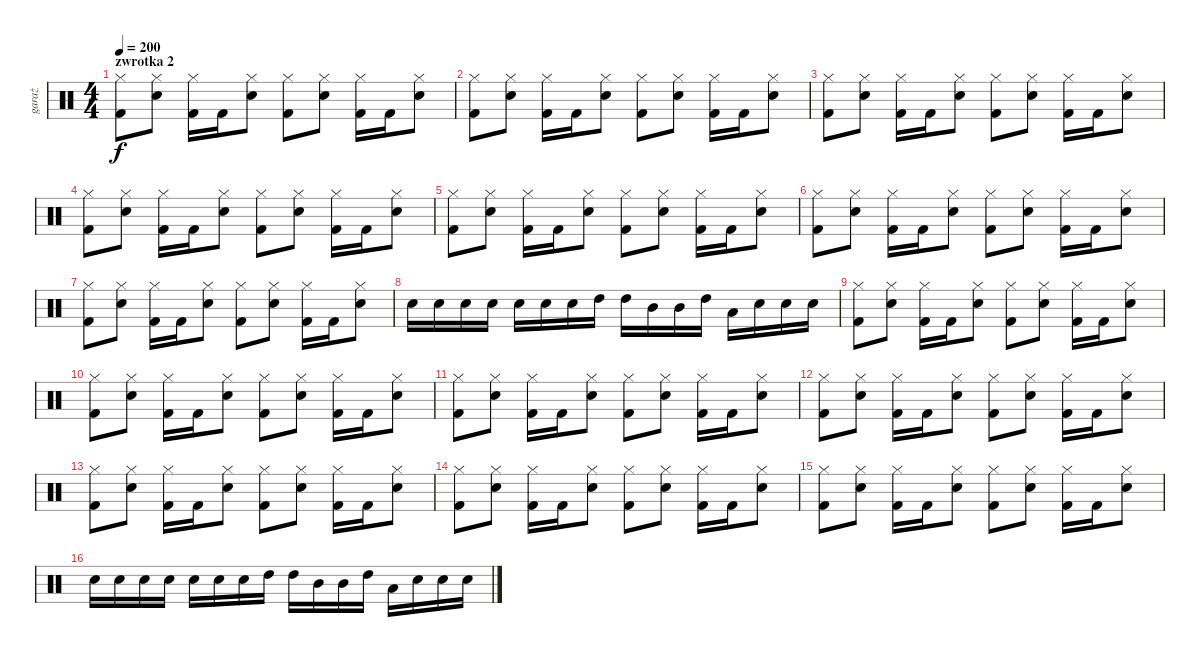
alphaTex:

\track ("garaż" "garaż") {instrument percussion}
\staff {score}
\articulation defaults
\ts (4 4)
\section ("" "zwrotka 2")
\tempo 200
\clef neutral
\ks c
("Hi-Hat (closed)" "Kick (hit) 2").8{dy f} ("Hi-Hat (closed)" "Snare (hit) 2").8 ("Hi-Hat (closed)" "Kick (hit) 2").16 "Kick (hit) 2".16 ("Hi-Hat (closed)" "Snare (hit) 2").8 ("Hi-Hat (closed)" "Kick (hit) 2").8 ("Hi-Hat (closed)" "Snare (hit) 2").8 ("Hi-Hat (closed)" "Kick (hit) 2").16 "Kick (hit) 2".16 ("Hi-Hat (closed)" "Snare (hit) 2").8 |
("Hi-Hat (closed)" "Kick (hit) 2").8 ("Hi-Hat (closed)" "Snare (hit) 2").8 ("Hi-Hat (closed)" "Kick (hit) 2").16 "Kick (hit) 2".16 ("Hi-Hat (closed)" "Snare (hit) 2").8 ("Hi-Hat (closed)" "Kick (hit) 2").8 ("Hi-Hat (closed)" "Snare (hit) 2").8 ("Hi-Hat (closed)" "Kick (hit) 2").16 "Kick (hit) 2".16 ("Hi-Hat (closed)" "Snare (hit) 2").8 |
("Hi-Hat (closed)" "Kick (hit) 2").8 ("Hi-Hat (closed)" "Snare (hit) 2").8 ("Hi-Hat (closed)" "Kick (hit) 2").16 "Kick (hit) 2".16 ("Hi-Hat (closed)" "Snare (hit) 2").8 ("Hi-Hat (closed)" "Kick (hit) 2").8 ("Hi-Hat (closed)" "Snare (hit) 2").8 ("Hi-Hat (closed)" "Kick (hit) 2").16 "Kick (hit) 2".16 ("Hi-Hat (closed)" "Snare (hit) 2").8 |
("Hi-Hat (closed)" "Kick (hit) 2").8 ("Hi-Hat (closed)" "Snare (hit) 2").8 ("Hi-Hat (closed)" "Kick (hit) 2").16 "Kick (hit) 2".16 ("Hi-Hat (closed)" "Snare (hit) 2").8 ("Hi-Hat (closed)" "Kick (hit) 2").8 ("Hi-Hat (closed)" "Snare (hit) 2").8 ("Hi-Hat (closed)" "Kick (hit) 2").16 "Kick (hit) 2".16 ("Hi-Hat (closed)" "Snare (hit) 2").8 |
("Hi-Hat (closed)" "Kick (hit) 2").8 ("Hi-Hat (closed)" "Snare (hit) 2").8 ("Hi-Hat (closed)" "Kick (hit) 2").16 "Kick (hit) 2".16 ("Hi-Hat (closed)" "Snare (hit) 2").8 ("Hi-Hat (closed)" "Kick (hit) 2").8 ("Hi-Hat (closed)" "Snare (hit) 2").8 ("Hi-Hat (closed)" "Kick (hit) 2").16 "Kick (hit) 2".16 ("Hi-Hat (closed)" "Snare (hit) 2").8 |
("Hi-Hat (closed)" "Kick (hit) 2").8 ("Hi-Hat (closed)" "Snare (hit) 2").8 ("Hi-Hat (closed)" "Kick (hit) 2").16 "Kick (hit) 2".16 ("Hi-Hat (closed)" "Snare (hit) 2").8 ("Hi-Hat (closed)" "Kick (hit) 2").8 ("Hi-Hat (closed)" "Snare (hit) 2").8 ("Hi-Hat (closed)" "Kick (hit) 2").16 "Kick (hit) 2".16 ("Hi-Hat (closed)" "Snare (hit) 2").8 |
("Hi-Hat (closed)" "Kick (hit) 2").8 ("Hi-Hat (closed)" "Snare (hit) 2").8 ("Hi-Hat (closed)" "Kick (hit) 2").16 "Kick (hit) 2".16 ("Hi-Hat (closed)" "Snare (hit) 2").8 ("Hi-Hat (closed)" "Kick (hit) 2").8 ("Hi-Hat (closed)" "Snare (hit) 2").8 ("Hi-Hat (closed)" "Kick (hit) 2").16 "Kick (hit) 2".16 ("Hi-Hat (closed)" "Snare (hit) 2").8 |
"Snare (hit) 2".16 "Snare (hit) 2".16 "Snare (hit) 2".16 "Snare (hit) 2".16 "Snare (hit) 2".16 "Snare (hit) 2".16 "Snare (hit) 2".16 "High Tom (hit)".16 "High Tom (hit)".16 "Mid Tom (hit)".16 "Mid Tom (hit)".16 "High Tom (hit)".16 "Low Tom (hit)".16 "Snare (hit) 2".16 "Snare (hit) 2".16 "Snare (hit) 2".16 |
("Hi-Hat (closed)" "Kick (hit) 2").8 ("Hi-Hat (closed)" "Snare (hit) 2").8 ("Hi-Hat (closed)" "Kick (hit) 2").16 "Kick (hit) 2".16 ("Hi-Hat (closed)" "Snare (hit) 2").8 ("Hi-Hat (closed)" "Kick (hit) 2").8 ("Hi-Hat (closed)" "Snare (hit) 2").8 ("Hi-Hat (closed)" "Kick (hit) 2").16 "Kick (hit) 2".16 ("Hi-Hat (closed)" "Snare (hit) 2").8 |
("Hi-Hat (closed)" "Kick (hit) 2").8 ("Hi-Hat (closed)" "Snare (hit) 2").8 ("Hi-Hat (closed)" "Kick (hit) 2").16 "Kick (hit) 2".16 ("Hi-Hat (closed)" "Snare (hit) 2").8 ("Hi-Hat (closed)" "Kick (hit) 2").8 ("Hi-Hat (closed)" "Snare (hit) 2").8 ("Hi-Hat (closed)" "Kick (hit) 2").16 "Kick (hit) 2".16 ("Hi-Hat (closed)" "Snare (hit) 2").8 |
("Hi-Hat (closed)" "Kick (hit) 2").8 ("Hi-Hat (closed)" "Snare (hit) 2").8 ("Hi-Hat (closed)" "Kick (hit) 2").16 "Kick (hit) 2".16 ("Hi-Hat (closed)" "Snare (hit) 2").8 ("Hi-Hat (closed)" "Kick (hit) 2").8 ("Hi-Hat (closed)" "Snare (hit) 2").8 ("Hi-Hat (closed)" "Kick (hit) 2").16 "Kick (hit) 2".16 ("Hi-Hat (closed)" "Snare (hit) 2").8 |
("Hi-Hat (closed)" "Kick (hit) 2").8 ("Hi-Hat (closed)" "Snare (hit) 2").8 ("Hi-Hat (closed)" "Kick (hit) 2").16 "Kick (hit) 2".16 ("Hi-Hat (closed)" "Snare (hit) 2").8 ("Hi-Hat (closed)" "Kick (hit) 2").8 ("Hi-Hat (closed)" "Snare (hit) 2").8 ("Hi-Hat (closed)" "Kick (hit) 2").16 "Kick (hit) 2".16 ("Hi-Hat (closed)" "Snare (hit) 2").8 |
("Hi-Hat (closed)" "Kick (hit) 2").8 ("Hi-Hat (closed)" "Snare (hit) 2").8 ("Hi-Hat (closed)" "Kick (hit) 2").16 "Kick (hit) 2".16 ("Hi-Hat (closed)" "Snare (hit) 2").8 ("Hi-Hat (closed)" "Kick (hit) 2").8 ("Hi-Hat (closed)" "Snare (hit) 2").8 ("Hi-Hat (closed)" "Kick (hit) 2").16 "Kick (hit) 2".16 ("Hi-Hat (closed)" "Snare (hit) 2").8 |
("Hi-Hat (closed)" "Kick (hit) 2").8 ("Hi-Hat (closed)" "Snare (hit) 2").8 ("Hi-Hat (closed)" "Kick (hit) 2").16 "Kick (hit) 2".16 ("Hi-Hat (closed)" "Snare (hit) 2").8 ("Hi-Hat (closed)" "Kick (hit) 2").8 ("Hi-Hat (closed)" "Snare (hit) 2").8 ("Hi-Hat (closed)" "Kick (hit) 2").16 "Kick (hit) 2".16 ("Hi-Hat (closed)" "Snare (hit) 2").8 |
("Hi-Hat (closed)" "Kick (hit) 2").8 ("Hi-Hat (closed)" "Snare (hit) 2").8 ("Hi-Hat (closed)" "Kick (hit) 2").16 "Kick (hit) 2".16 ("Hi-Hat (closed)" "Snare (hit) 2").8 ("Hi-Hat (closed)" "Kick (hit) 2").8 ("Hi-Hat (closed)" "Snare (hit) 2").8 ("Hi-Hat (closed)" "Kick (hit) 2").16 "Kick (hit) 2".16 ("Hi-Hat (closed)" "Snare (hit) 2").8 |
"Snare (hit) 2".16 "Snare (hit) 2".16 "Snare (hit) 2".16 "Snare (hit) 2".16 "Snare (hit) 2".16 "Snare (hit) 2".16 "Snare (hit) 2".16 "High Tom (hit)".16 "High Tom (hit)".16 "Mid Tom (hit)".16 "Mid Tom (hit)".16 "High Tom (hit)".16 "Low Tom (hit)".16 "Snare (hit) 2".16 "Snare (hit) 2".16 "Snare (hit) 2".16
